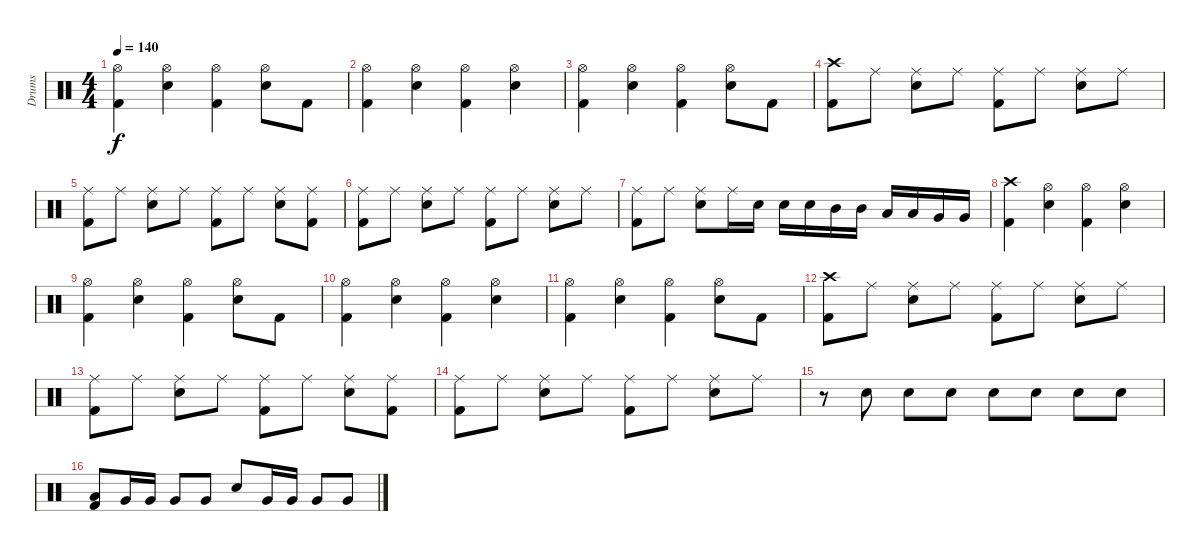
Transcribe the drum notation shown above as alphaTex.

\track ("Drums" "Drums") {instrument percussion}
\staff {score}
\articulation defaults
\ts (4 4)
\tempo 140
\clef neutral
\ks c
("Hi-Hat (open)" "Kick (hit) 2").4{dy f} ("Hi-Hat (open)" "Electric Snare (hit)").4 ("Hi-Hat (open)" "Kick (hit) 2").4 ("Hi-Hat (open)" "Electric Snare (hit)").8 "Kick (hit) 2".8 |
("Hi-Hat (open)" "Kick (hit) 2").4 ("Hi-Hat (open)" "Electric Snare (hit)").4 ("Hi-Hat (open)" "Kick (hit) 2").4 ("Hi-Hat (open)" "Electric Snare (hit)").4 |
("Hi-Hat (open)" "Kick (hit) 2").4 ("Hi-Hat (open)" "Electric Snare (hit)").4 ("Hi-Hat (open)" "Kick (hit) 2").4 ("Hi-Hat (open)" "Electric Snare (hit)").8 "Kick (hit) 2".8 |
("Crash high (hit)" "Kick (hit) 2").8 "Ride (middle)".8 ("Ride (middle)" "Electric Snare (hit)").8 "Ride (middle)".8 ("Ride (middle)" "Kick (hit) 2").8 "Ride (middle)".8 ("Ride (middle)" "Electric Snare (hit)").8 "Ride (middle)".8 |
("Ride (middle)" "Kick (hit) 2").8 "Ride (middle)".8 ("Ride (middle)" "Electric Snare (hit)").8 "Ride (middle)".8 ("Ride (middle)" "Kick (hit) 2").8 "Ride (middle)".8 ("Ride (middle)" "Electric Snare (hit)").8 ("Ride (middle)" "Kick (hit) 2").8 |
("Ride (middle)" "Kick (hit) 2").8 "Ride (middle)".8 ("Ride (middle)" "Electric Snare (hit)").8 "Ride (middle)".8 ("Ride (middle)" "Kick (hit) 2").8 "Ride (middle)".8 ("Ride (middle)" "Electric Snare (hit)").8 "Ride (middle)".8 |
("Ride (middle)" "Kick (hit) 2").8 "Ride (middle)".8 ("Ride (middle)" "Electric Snare (hit)").8 "Ride (middle)".16 "Electric Snare (hit)".16 "Electric Snare (hit)".16 "Electric Snare (hit)".16 "Mid Tom (hit)".16 "Mid Tom (hit)".16 "Low Tom (hit)".16 "Low Tom (hit)".16 "Very Low Tom (hit)".16 "Very Low Tom (hit)".16 |
("Crash high (hit)" "Kick (hit) 2").4 ("Hi-Hat (open)" "Electric Snare (hit)").4 ("Hi-Hat (open)" "Kick (hit) 2").4 ("Hi-Hat (open)" "Electric Snare (hit)").4 |
("Hi-Hat (open)" "Kick (hit) 2").4 ("Hi-Hat (open)" "Electric Snare (hit)").4 ("Hi-Hat (open)" "Kick (hit) 2").4 ("Hi-Hat (open)" "Electric Snare (hit)").8 "Kick (hit) 2".8 |
("Hi-Hat (open)" "Kick (hit) 2").4 ("Hi-Hat (open)" "Electric Snare (hit)").4 ("Hi-Hat (open)" "Kick (hit) 2").4 ("Hi-Hat (open)" "Electric Snare (hit)").4 |
("Hi-Hat (open)" "Kick (hit) 2").4 ("Hi-Hat (open)" "Electric Snare (hit)").4 ("Hi-Hat (open)" "Kick (hit) 2").4 ("Hi-Hat (open)" "Electric Snare (hit)").8 "Kick (hit) 2".8 |
("Crash high (hit)" "Kick (hit) 2").8 "Ride (middle)".8 ("Ride (middle)" "Electric Snare (hit)").8 "Ride (middle)".8 ("Ride (middle)" "Kick (hit) 2").8 "Ride (middle)".8 ("Ride (middle)" "Electric Snare (hit)").8 "Ride (middle)".8 |
("Ride (middle)" "Kick (hit) 2").8 "Ride (middle)".8 ("Ride (middle)" "Electric Snare (hit)").8 "Ride (middle)".8 ("Ride (middle)" "Kick (hit) 2").8 "Ride (middle)".8 ("Ride (middle)" "Electric Snare (hit)").8 ("Ride (middle)" "Kick (hit) 2").8 |
("Ride (middle)" "Kick (hit) 2").8 "Ride (middle)".8 ("Ride (middle)" "Electric Snare (hit)").8 "Ride (middle)".8 ("Ride (middle)" "Kick (hit) 2").8 "Ride (middle)".8 ("Ride (middle)" "Electric Snare (hit)").8 "Ride (middle)".8 |
r.8 "Electric Snare (hit)".8{volume 8} "Electric Snare (hit)".8{volume 9} "Electric Snare (hit)".8{volume 10} "Electric Snare (hit)".8{volume 11} "Electric Snare (hit)".8{volume 12} "Electric Snare (hit)".8{volume 13} "Electric Snare (hit)".8{volume 14} |
("Low Tom (hit)" "Kick (hit) 2").8{volume 13} "Very Low Tom (hit)".16 "Very Low Tom (hit)".16 "Very Low Tom (hit)".8 "Very Low Tom (hit)".8 "Electric Snare (hit)".8 "Very Low Tom (hit)".16 "Very Low Tom (hit)".16 "Very Low Tom (hit)".8 "Very Low Tom (hit)".8
